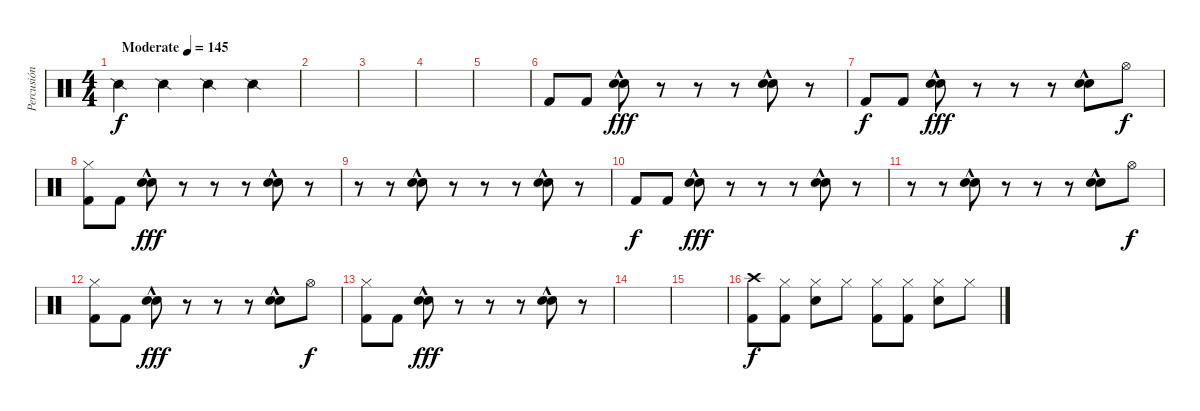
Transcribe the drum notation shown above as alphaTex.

\track ("Percusión" "Percusión") {instrument percussion}
\staff {score}
\articulation defaults
\ts (4 4)
\tempo (145 "Moderate")
\clef neutral
\ks c "Snare (side stick) 2".4{dy f} "Snare (side stick) 2".4 "Snare (side stick) 2".4 "Snare (side stick) 2".4
|
|
|
|
|
"Kick (hit) 2".8 "Kick (hit) 2".8 ("Electric Snare (hit)"{hac} "Electric Snare (hit)"{hac}).8{dy fff} r.8 r.8 r.8 ("Electric Snare (hit)"{hac} "Electric Snare (hit)"{hac}).8 r.8 |
"Kick (hit) 2".8{dy f} "Kick (hit) 2".8 ("Electric Snare (hit)"{hac} "Electric Snare (hit)"{hac}).8{dy fff} r.8 r.8 r.8 ("Electric Snare (hit)"{hac} "Electric Snare (hit)"{hac}).8 "Hi-Hat (open)".8{dy f} |
("Hi-Hat (closed)" "Kick (hit) 2").8 "Kick (hit) 2".8 ("Electric Snare (hit)"{hac} "Electric Snare (hit)"{hac}).8{dy fff} r.8 r.8 r.8 ("Electric Snare (hit)"{hac} "Electric Snare (hit)"{hac}).8 r.8 |
r.8 r.8 ("Electric Snare (hit)"{hac} "Electric Snare (hit)"{hac}).8 r.8 r.8 r.8 ("Electric Snare (hit)"{hac} "Electric Snare (hit)"{hac}).8 r.8 |
"Kick (hit) 2".8{dy f} "Kick (hit) 2".8 ("Electric Snare (hit)"{hac} "Electric Snare (hit)"{hac}).8{dy fff} r.8 r.8 r.8 ("Electric Snare (hit)"{hac} "Electric Snare (hit)"{hac}).8 r.8 |
r.8 r.8 ("Electric Snare (hit)"{hac} "Electric Snare (hit)"{hac}).8 r.8 r.8 r.8 ("Electric Snare (hit)"{hac} "Electric Snare (hit)"{hac}).8 "Hi-Hat (open)".8{dy f} |
("Hi-Hat (closed)" "Kick (hit) 2").8 "Kick (hit) 2".8 ("Electric Snare (hit)"{hac} "Electric Snare (hit)"{hac}).8{dy fff} r.8 r.8 r.8 ("Electric Snare (hit)"{hac} "Electric Snare (hit)"{hac}).8 "Hi-Hat (open)".8{dy f} |
("Hi-Hat (closed)" "Kick (hit) 2").8 "Kick (hit) 2".8 ("Electric Snare (hit)"{hac} "Electric Snare (hit)"{hac}).8{dy fff} r.8 r.8 r.8 ("Electric Snare (hit)"{hac} "Electric Snare (hit)"{hac}).8 r.8 |
|
|
("Crash high (hit)" "Kick (hit) 2").8{dy f} ("Hi-Hat (closed)" "Kick (hit) 2").8 ("Hi-Hat (closed)" "Electric Snare (hit)").8 "Hi-Hat (closed)".8 ("Hi-Hat (closed)" "Kick (hit) 2").8 ("Hi-Hat (closed)" "Kick (hit) 2").8 ("Hi-Hat (closed)" "Electric Snare (hit)").8 "Hi-Hat (closed)".8
